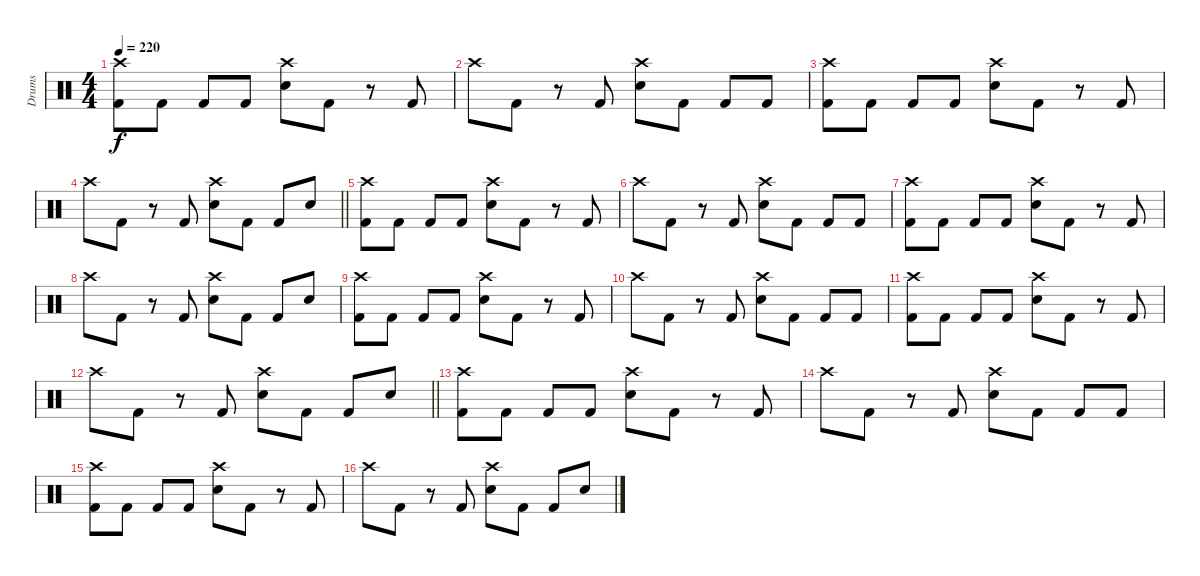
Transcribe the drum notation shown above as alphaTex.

\track ("Drums" "Drums") {instrument percussion}
\staff {score}
\articulation defaults
\ts (4 4)
\tempo 220
\clef neutral
\ks c
("Kick (hit) 2" "Crash high (hit)").8{dy f} "Kick (hit) 2".8 "Kick (hit) 2".8 "Kick (hit) 2".8 ("Electric Snare (hit)" "Crash high (hit)").8 "Kick (hit) 2".8 r.8 "Kick (hit) 2".8 |
"Crash high (hit)".8 "Kick (hit) 2".8 r.8 "Kick (hit) 2".8 ("Electric Snare (hit)" "Crash high (hit)").8 "Kick (hit) 2".8 "Kick (hit) 2".8 "Kick (hit) 2".8 |
("Kick (hit) 2" "Crash high (hit)").8 "Kick (hit) 2".8 "Kick (hit) 2".8 "Kick (hit) 2".8 ("Electric Snare (hit)" "Crash high (hit)").8 "Kick (hit) 2".8 r.8 "Kick (hit) 2".8 |
\barLineRight lightlight "Crash high (hit)".8 "Kick (hit) 2".8
r.8 "Kick (hit) 2".8 ("Electric Snare (hit)" "Crash high (hit)").8 "Kick (hit) 2".8 "Kick (hit) 2".8 "Electric Snare (hit)".8 |
("Kick (hit) 2" "Crash high (hit)").8 "Kick (hit) 2".8 "Kick (hit) 2".8 "Kick (hit) 2".8 ("Electric Snare (hit)" "Crash high (hit)").8 "Kick (hit) 2".8 r.8 "Kick (hit) 2".8 |
"Crash high (hit)".8 "Kick (hit) 2".8 r.8 "Kick (hit) 2".8 ("Electric Snare (hit)" "Crash high (hit)").8 "Kick (hit) 2".8 "Kick (hit) 2".8 "Kick (hit) 2".8 |
("Kick (hit) 2" "Crash high (hit)").8 "Kick (hit) 2".8 "Kick (hit) 2".8 "Kick (hit) 2".8 ("Electric Snare (hit)" "Crash high (hit)").8 "Kick (hit) 2".8 r.8 "Kick (hit) 2".8 |
"Crash high (hit)".8 "Kick (hit) 2".8 r.8 "Kick (hit) 2".8 ("Electric Snare (hit)" "Crash high (hit)").8 "Kick (hit) 2".8 "Kick (hit) 2".8 "Electric Snare (hit)".8 |
("Kick (hit) 2" "Crash high (hit)").8 "Kick (hit) 2".8 "Kick (hit) 2".8 "Kick (hit) 2".8 ("Electric Snare (hit)" "Crash high (hit)").8 "Kick (hit) 2".8 r.8 "Kick (hit) 2".8 |
"Crash high (hit)".8 "Kick (hit) 2".8 r.8 "Kick (hit) 2".8 ("Electric Snare (hit)" "Crash high (hit)").8 "Kick (hit) 2".8 "Kick (hit) 2".8 "Kick (hit) 2".8 |
("Kick (hit) 2" "Crash high (hit)").8 "Kick (hit) 2".8 "Kick (hit) 2".8 "Kick (hit) 2".8 ("Electric Snare (hit)" "Crash high (hit)").8 "Kick (hit) 2".8 r.8 "Kick (hit) 2".8 |
\barLineRight lightlight "Crash high (hit)".8 "Kick (hit) 2".8
r.8 "Kick (hit) 2".8 ("Electric Snare (hit)" "Crash high (hit)").8 "Kick (hit) 2".8 "Kick (hit) 2".8 "Electric Snare (hit)".8 |
("Kick (hit) 2" "Crash high (hit)").8 "Kick (hit) 2".8 "Kick (hit) 2".8 "Kick (hit) 2".8 ("Electric Snare (hit)" "Crash high (hit)").8 "Kick (hit) 2".8 r.8 "Kick (hit) 2".8 |
"Crash high (hit)".8 "Kick (hit) 2".8 r.8 "Kick (hit) 2".8 ("Electric Snare (hit)" "Crash high (hit)").8 "Kick (hit) 2".8 "Kick (hit) 2".8 "Kick (hit) 2".8 |
("Kick (hit) 2" "Crash high (hit)").8 "Kick (hit) 2".8 "Kick (hit) 2".8 "Kick (hit) 2".8 ("Electric Snare (hit)" "Crash high (hit)").8 "Kick (hit) 2".8 r.8 "Kick (hit) 2".8 |
"Crash high (hit)".8 "Kick (hit) 2".8 r.8 "Kick (hit) 2".8 ("Electric Snare (hit)" "Crash high (hit)").8 "Kick (hit) 2".8 "Kick (hit) 2".8 "Electric Snare (hit)".8
